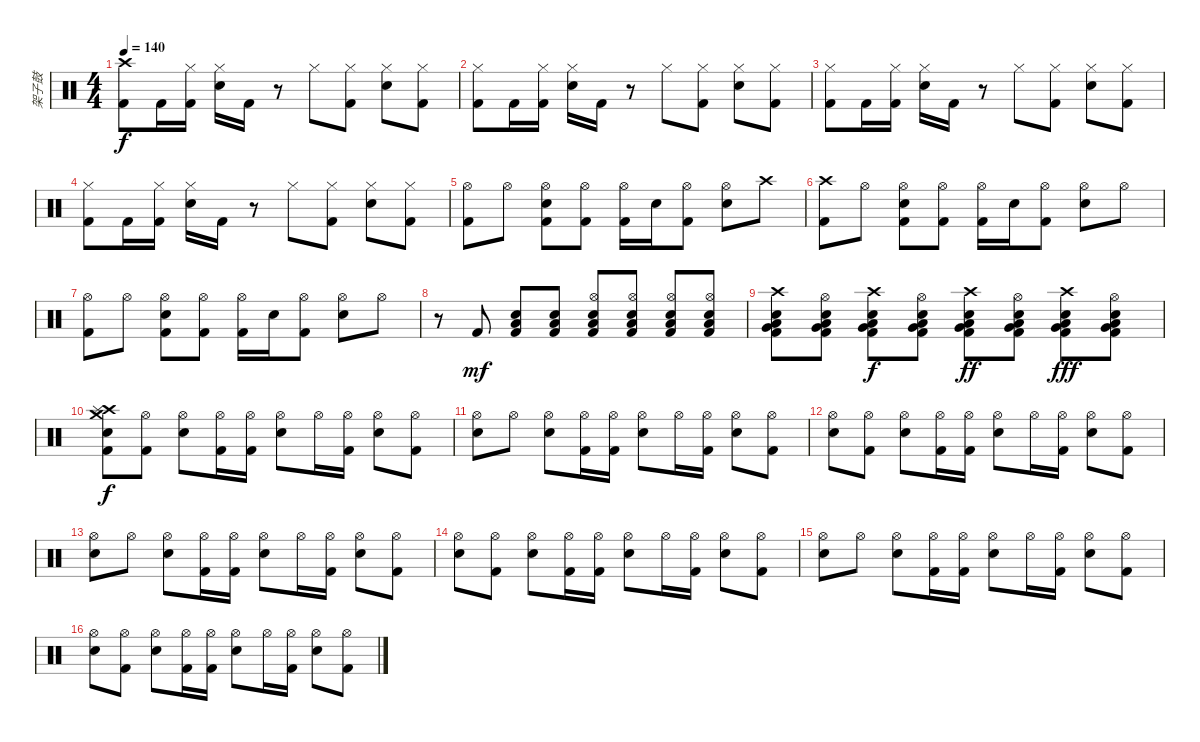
\track ("架子鼓" "架子鼓") {instrument percussion}
\staff {score}
\articulation defaults
\ts (4 4)
\tempo 140
\clef neutral
\ks c
("Crash high (hit)" "Kick (hit) 2").8{dy f} "Kick (hit) 2".16 ("Hi-Hat (closed)" "Kick (hit) 2").16 ("Hi-Hat (closed)" "Snare (hit) 2").16 "Kick (hit) 2".16 r.8 "Hi-Hat (closed)".8 ("Hi-Hat (closed)" "Kick (hit) 2").8 ("Hi-Hat (closed)" "Snare (hit) 2").8 ("Hi-Hat (closed)" "Kick (hit) 2").8 |
("Hi-Hat (closed)" "Kick (hit) 2").8 "Kick (hit) 2".16 ("Hi-Hat (closed)" "Kick (hit) 2").16 ("Hi-Hat (closed)" "Snare (hit) 2").16 "Kick (hit) 2".16 r.8 "Hi-Hat (closed)".8 ("Hi-Hat (closed)" "Kick (hit) 2").8 ("Hi-Hat (closed)" "Snare (hit) 2").8 ("Hi-Hat (closed)" "Kick (hit) 2").8 |
("Hi-Hat (closed)" "Kick (hit) 2").8 "Kick (hit) 2".16 ("Hi-Hat (closed)" "Kick (hit) 2").16 ("Hi-Hat (closed)" "Snare (hit) 2").16 "Kick (hit) 2".16 r.8 "Hi-Hat (closed)".8 ("Hi-Hat (closed)" "Kick (hit) 2").8 ("Hi-Hat (closed)" "Snare (hit) 2").8 ("Hi-Hat (closed)" "Kick (hit) 2").8 |
("Hi-Hat (closed)" "Kick (hit) 2").8 "Kick (hit) 2".16 ("Hi-Hat (closed)" "Kick (hit) 2").16 ("Hi-Hat (closed)" "Snare (hit) 2").16 "Kick (hit) 2".16 r.8 "Hi-Hat (closed)".8 ("Hi-Hat (closed)" "Kick (hit) 2").8 ("Hi-Hat (closed)" "Snare (hit) 2").8 ("Hi-Hat (closed)" "Kick (hit) 2").8 |
("Hi-Hat (open)" "Kick (hit) 2").8 "Hi-Hat (open)".8 ("Hi-Hat (open)" "Snare (hit) 2" "Kick (hit) 2").8 ("Hi-Hat (open)" "Kick (hit) 2").8 ("Hi-Hat (open)" "Kick (hit) 2").16 "Snare (hit) 2".16 ("Hi-Hat (open)" "Kick (hit) 2").8 ("Hi-Hat (open)" "Snare (hit) 2").8 "Crash high (hit)".8 |
("Crash high (hit)" "Kick (hit) 2").8 "Hi-Hat (open)".8 ("Hi-Hat (open)" "Snare (hit) 2" "Kick (hit) 2").8 ("Hi-Hat (open)" "Kick (hit) 2").8 ("Hi-Hat (open)" "Kick (hit) 2").16 "Snare (hit) 2".16 ("Hi-Hat (open)" "Kick (hit) 2").8 ("Hi-Hat (open)" "Snare (hit) 2").8 "Hi-Hat (open)".8 |
("Hi-Hat (open)" "Kick (hit) 2").8 "Hi-Hat (open)".8 ("Hi-Hat (open)" "Snare (hit) 2" "Kick (hit) 2").8 ("Hi-Hat (open)" "Kick (hit) 2").8 ("Hi-Hat (open)" "Kick (hit) 2").16 "Snare (hit) 2".16 ("Hi-Hat (open)" "Kick (hit) 2").8 ("Hi-Hat (open)" "Snare (hit) 2").8 "Hi-Hat (open)".8 |
r.8 "Kick (hit) 2".8{dy mf} ("Snare (hit) 2" "Low Tom (hit)" "Kick (hit) 2").8 ("Snare (hit) 2" "Low Tom (hit)" "Kick (hit) 2").8 ("Hi-Hat (open)" "Snare (hit) 2" "Low Tom (hit)" "Kick (hit) 2").8 ("Hi-Hat (open)" "Snare (hit) 2" "Low Tom (hit)" "Kick (hit) 2").8 ("Hi-Hat (open)" "Snare (hit) 2" "Low Tom (hit)" "Kick (hit) 2").8 ("Hi-Hat (open)" "Snare (hit) 2" "Low Tom (hit)" "Kick (hit) 2").8 |
("Crash high (hit)" "Snare (hit) 2" "Very Low Tom (hit)" "Low Tom (hit)" "Kick (hit) 2").8 ("Hi-Hat (open)" "Snare (hit) 2" "Very Low Tom (hit)" "Low Tom (hit)" "Kick (hit) 2").8 ("Crash high (hit)" "Snare (hit) 2" "Very Low Tom (hit)" "Low Tom (hit)" "Kick (hit) 2").8{dy f} ("Hi-Hat (open)" "Snare (hit) 2" "Very Low Tom (hit)" "Low Tom (hit)" "Kick (hit) 2").8 ("Crash high (hit)" "Snare (hit) 2" "Very Low Tom (hit)" "Low Tom (hit)" "Kick (hit) 2").8{dy ff} ("Hi-Hat (open)" "Snare (hit) 2" "Very Low Tom (hit)" "Low Tom (hit)" "Kick (hit) 2").8 ("Crash high (hit)" "Snare (hit) 2" "Very Low Tom (hit)" "Low Tom (hit)" "Kick (hit) 2").8{dy fff} ("Hi-Hat (open)" "Snare (hit) 2" "Very Low Tom (hit)" "Low Tom (hit)" "Kick (hit) 2").8 |
("Crash high (hit)" "Crash medium (hit)" "Snare (hit) 2" "Splash (hit)" "Kick (hit) 2").8{dy f} ("Hi-Hat (open)" "Kick (hit) 2").8 ("Hi-Hat (open)" "Snare (hit) 2").8 ("Hi-Hat (open)" "Kick (hit) 2").16 ("Hi-Hat (open)" "Kick (hit) 2").16 ("Hi-Hat (open)" "Snare (hit) 2").8 "Hi-Hat (open)".16 ("Hi-Hat (open)" "Kick (hit) 2").16 ("Hi-Hat (open)" "Snare (hit) 2").8 ("Hi-Hat (open)" "Kick (hit) 2").8 |
("Hi-Hat (open)" "Snare (hit) 2").8 "Hi-Hat (open)".8 ("Hi-Hat (open)" "Snare (hit) 2").8 ("Hi-Hat (open)" "Kick (hit) 2").16 ("Hi-Hat (open)" "Kick (hit) 2").16 ("Hi-Hat (open)" "Snare (hit) 2").8 "Hi-Hat (open)".16 ("Hi-Hat (open)" "Kick (hit) 2").16 ("Hi-Hat (open)" "Snare (hit) 2").8 ("Hi-Hat (open)" "Kick (hit) 2").8 |
("Hi-Hat (open)" "Snare (hit) 2").8 ("Hi-Hat (open)" "Kick (hit) 2").8 ("Hi-Hat (open)" "Snare (hit) 2").8 ("Hi-Hat (open)" "Kick (hit) 2").16 ("Hi-Hat (open)" "Kick (hit) 2").16 ("Hi-Hat (open)" "Snare (hit) 2").8 "Hi-Hat (open)".16 ("Hi-Hat (open)" "Kick (hit) 2").16 ("Hi-Hat (open)" "Snare (hit) 2").8 ("Hi-Hat (open)" "Kick (hit) 2").8 |
("Hi-Hat (open)" "Snare (hit) 2").8 "Hi-Hat (open)".8 ("Hi-Hat (open)" "Snare (hit) 2").8 ("Hi-Hat (open)" "Kick (hit) 2").16 ("Hi-Hat (open)" "Kick (hit) 2").16 ("Hi-Hat (open)" "Snare (hit) 2").8 "Hi-Hat (open)".16 ("Hi-Hat (open)" "Kick (hit) 2").16 ("Hi-Hat (open)" "Snare (hit) 2").8 ("Hi-Hat (open)" "Kick (hit) 2").8 |
("Hi-Hat (open)" "Snare (hit) 2").8 ("Hi-Hat (open)" "Kick (hit) 2").8 ("Hi-Hat (open)" "Snare (hit) 2").8 ("Hi-Hat (open)" "Kick (hit) 2").16 ("Hi-Hat (open)" "Kick (hit) 2").16 ("Hi-Hat (open)" "Snare (hit) 2").8 "Hi-Hat (open)".16 ("Hi-Hat (open)" "Kick (hit) 2").16 ("Hi-Hat (open)" "Snare (hit) 2").8 ("Hi-Hat (open)" "Kick (hit) 2").8 |
("Hi-Hat (open)" "Snare (hit) 2").8 "Hi-Hat (open)".8 ("Hi-Hat (open)" "Snare (hit) 2").8 ("Hi-Hat (open)" "Kick (hit) 2").16 ("Hi-Hat (open)" "Kick (hit) 2").16 ("Hi-Hat (open)" "Snare (hit) 2").8 "Hi-Hat (open)".16 ("Hi-Hat (open)" "Kick (hit) 2").16 ("Hi-Hat (open)" "Snare (hit) 2").8 ("Hi-Hat (open)" "Kick (hit) 2").8 |
("Hi-Hat (open)" "Snare (hit) 2").8 ("Hi-Hat (open)" "Kick (hit) 2").8 ("Hi-Hat (open)" "Snare (hit) 2").8 ("Hi-Hat (open)" "Kick (hit) 2").16 ("Hi-Hat (open)" "Kick (hit) 2").16 ("Hi-Hat (open)" "Snare (hit) 2").8 "Hi-Hat (open)".16 ("Hi-Hat (open)" "Kick (hit) 2").16 ("Hi-Hat (open)" "Snare (hit) 2").8 ("Hi-Hat (open)" "Kick (hit) 2").8
